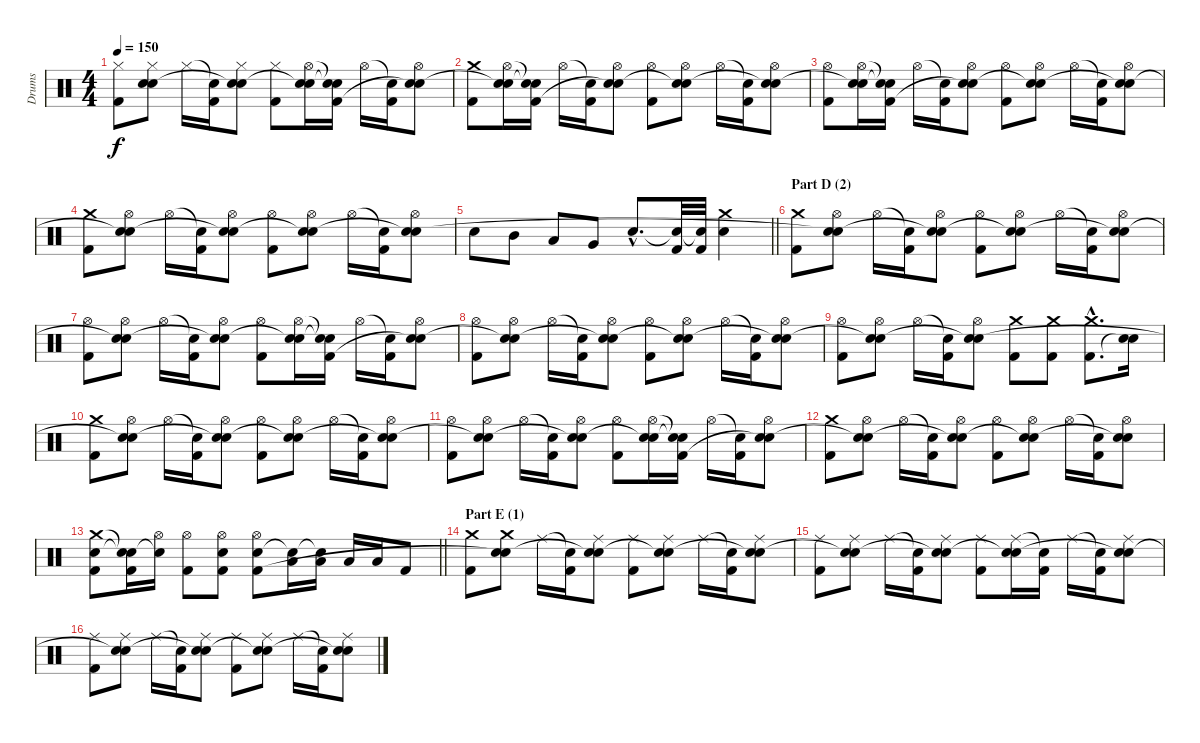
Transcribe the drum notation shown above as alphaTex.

\track ("Drums" "Drums") {instrument percussion}
\staff {score}
\articulation defaults
\ts (4 4)
\tempo 150
\clef neutral
\ks c
("Hi-Hat (closed)" "Kick (hit) 2").8{dy f} ("Hi-Hat (closed)" "Electric Snare (hit)" "Snare (hit)"{t}).8 "Hi-Hat (closed)".16 ("Snare (hit)"{t} "Kick (hit) 2").16 ("Hi-Hat (closed)" "Electric Snare (hit)" "Snare (hit)"{t}).8 ("Hi-Hat (closed)" "Kick (hit) 2").8 ("Hi-Hat (open)" "Electric Snare (hit)" "Snare (hit)"{t}).16 ("Snare (hit)"{t} "Snare (hit)"{t} "Kick (hit) 2").16 "Hi-Hat (open)".16 ("Snare (hit)"{t} "Kick (hit) 2").16 ("Hi-Hat (open)" "Electric Snare (hit)" "Snare (hit)"{t}).8 |
("Crash medium (hit)" "Kick (hit) 2").8 ("Hi-Hat (open)" "Electric Snare (hit)" "Snare (hit)"{t}).16 ("Snare (hit)"{t} "Snare (hit)"{t} "Kick (hit) 2").16 "Hi-Hat (open)".16 ("Snare (hit)"{t} "Kick (hit) 2").16 ("Hi-Hat (open)" "Electric Snare (hit)" "Snare (hit)"{t}).8 ("Hi-Hat (open)" "Kick (hit) 2").8 ("Hi-Hat (open)" "Electric Snare (hit)" "Snare (hit)"{t}).8 "Hi-Hat (open)".16 ("Snare (hit)"{t} "Kick (hit) 2").16 ("Hi-Hat (open)" "Electric Snare (hit)" "Snare (hit)"{t}).8 |
("Hi-Hat (open)" "Kick (hit) 2").8 ("Hi-Hat (open)" "Electric Snare (hit)" "Snare (hit)"{t}).16 ("Snare (hit)"{t} "Snare (hit)"{t} "Kick (hit) 2").16 "Hi-Hat (open)".16 ("Snare (hit)"{t} "Kick (hit) 2").16 ("Hi-Hat (open)" "Electric Snare (hit)" "Snare (hit)"{t}).8 ("Hi-Hat (open)" "Kick (hit) 2").8 ("Hi-Hat (open)" "Electric Snare (hit)" "Snare (hit)"{t}).8 "Hi-Hat (open)".16 ("Snare (hit)"{t} "Kick (hit) 2").16 ("Hi-Hat (open)" "Electric Snare (hit)" "Snare (hit)"{t}).8 |
("Crash medium (hit)" "Kick (hit) 2").8 ("Hi-Hat (open)" "Electric Snare (hit)" "Snare (hit)"{t}).8 "Hi-Hat (open)".16 ("Snare (hit)"{t} "Kick (hit) 2").16 ("Hi-Hat (open)" "Electric Snare (hit)" "Snare (hit)"{t}).8 ("Hi-Hat (open)" "Kick (hit) 2").8 ("Hi-Hat (open)" "Electric Snare (hit)" "Snare (hit)"{t}).8 "Hi-Hat (open)".16 ("Snare (hit)"{t} "Kick (hit) 2").16 ("Hi-Hat (open)" "Electric Snare (hit)" "Snare (hit)"{t}).8 |
\barLineRight lightlight "Electric Snare (hit)".8 "Mid Tom (hit)".8 "Low Tom (hit)".8 "Very Low Tom (hit)".8 "Electric Snare (hit)"{hac}.8{d}
("Snare (hit)"{t} "Kick (hit) 2").32 ("Snare (hit)"{t} "Kick (hit) 2").32 ("Crash medium (hit)" "Electric Snare (hit)").4 |
\section ("" "Part D (2)")
("Crash medium (hit)" "Kick (hit) 2").8 ("Hi-Hat (open)" "Electric Snare (hit)" "Snare (hit)"{t}).8 "Hi-Hat (open)".16 ("Snare (hit)"{t} "Kick (hit) 2").16 ("Hi-Hat (open)" "Electric Snare (hit)" "Snare (hit)"{t}).8 ("Hi-Hat (open)" "Kick (hit) 2").8 ("Hi-Hat (open)" "Electric Snare (hit)" "Snare (hit)"{t}).8 "Hi-Hat (open)".16 ("Snare (hit)"{t} "Kick (hit) 2").16 ("Hi-Hat (open)" "Electric Snare (hit)" "Snare (hit)"{t}).8 |
("Hi-Hat (open)" "Kick (hit) 2").8 ("Hi-Hat (open)" "Electric Snare (hit)" "Snare (hit)"{t}).8 "Hi-Hat (open)".16 ("Snare (hit)"{t} "Kick (hit) 2").16 ("Hi-Hat (open)" "Electric Snare (hit)" "Snare (hit)"{t}).8 ("Hi-Hat (open)" "Kick (hit) 2").8 ("Hi-Hat (open)" "Electric Snare (hit)" "Snare (hit)"{t}).16 ("Snare (hit)"{t} "Snare (hit)"{t} "Kick (hit) 2").16 "Hi-Hat (open)".16 ("Snare (hit)"{t} "Kick (hit) 2").16 ("Hi-Hat (open)" "Electric Snare (hit)" "Snare (hit)"{t}).8 |
("Hi-Hat (open)" "Kick (hit) 2").8 ("Hi-Hat (open)" "Electric Snare (hit)" "Snare (hit)"{t}).8 "Hi-Hat (open)".16 ("Snare (hit)"{t} "Kick (hit) 2").16 ("Hi-Hat (open)" "Electric Snare (hit)" "Snare (hit)"{t}).8 ("Hi-Hat (open)" "Kick (hit) 2").8 ("Hi-Hat (open)" "Electric Snare (hit)" "Snare (hit)"{t}).8 "Hi-Hat (open)".16 ("Snare (hit)"{t} "Kick (hit) 2").16 ("Hi-Hat (open)" "Electric Snare (hit)" "Snare (hit)"{t}).8 |
("Hi-Hat (open)" "Kick (hit) 2").8 ("Hi-Hat (open)" "Electric Snare (hit)" "Snare (hit)"{t}).8 "Hi-Hat (open)".16 ("Snare (hit)"{t} "Kick (hit) 2").16 ("Hi-Hat (open)" "Electric Snare (hit)" "Snare (hit)"{t}).8 ("Crash medium (hit)" "Kick (hit) 2").8 ("Crash medium (hit)" "Kick (hit) 2").8 ("Crash medium (hit)"{hac} "Kick (hit) 2"{hac}).8{d} ("Electric Snare (hit)" "Snare (hit)"{t}).16 |
("Crash medium (hit)" "Kick (hit) 2").8 ("Hi-Hat (open)" "Electric Snare (hit)" "Snare (hit)"{t}).8 "Hi-Hat (open)".16 ("Snare (hit)"{t} "Kick (hit) 2").16 ("Hi-Hat (open)" "Electric Snare (hit)" "Snare (hit)"{t}).8 ("Hi-Hat (open)" "Kick (hit) 2").8 ("Hi-Hat (open)" "Electric Snare (hit)" "Snare (hit)"{t}).8 "Hi-Hat (open)".16 ("Snare (hit)"{t} "Kick (hit) 2").16 ("Hi-Hat (open)" "Electric Snare (hit)" "Snare (hit)"{t}).8 |
("Hi-Hat (open)" "Kick (hit) 2").8 ("Hi-Hat (open)" "Electric Snare (hit)" "Snare (hit)"{t}).8 "Hi-Hat (open)".16 ("Snare (hit)"{t} "Kick (hit) 2").16 ("Hi-Hat (open)" "Electric Snare (hit)" "Snare (hit)"{t}).8 ("Hi-Hat (open)" "Kick (hit) 2").8 ("Hi-Hat (open)" "Electric Snare (hit)" "Snare (hit)"{t}).16 ("Snare (hit)"{t} "Snare (hit)"{t} "Kick (hit) 2").16 "Hi-Hat (open)".16 ("Snare (hit)"{t} "Kick (hit) 2").16 ("Hi-Hat (open)" "Electric Snare (hit)" "Snare (hit)"{t}).8 |
("Crash medium (hit)" "Kick (hit) 2").8 ("Hi-Hat (open)" "Electric Snare (hit)" "Snare (hit)"{t}).8 "Hi-Hat (open)".16 ("Snare (hit)"{t} "Kick (hit) 2").16 ("Hi-Hat (open)" "Electric Snare (hit)" "Snare (hit)"{t}).8 ("Hi-Hat (open)" "Kick (hit) 2").8 ("Hi-Hat (open)" "Electric Snare (hit)" "Snare (hit)"{t}).8 "Hi-Hat (open)".16 ("Snare (hit)"{t} "Kick (hit) 2").16 ("Hi-Hat (open)" "Electric Snare (hit)" "Snare (hit)"{t}).8 |
\barLineRight lightlight
("Crash medium (hit)" "Electric Snare (hit)" "Kick (hit) 2").8 ("Snare (hit)"{t} "Snare (hit)"{t} "Kick (hit) 2").16 ("Hi-Hat (open)" "Snare (hit)"{t}).16 ("Hi-Hat (open)" "Kick (hit) 2").8 ("Hi-Hat (open)" "Electric Snare (hit)" "Kick (hit) 2").8 ("Hi-Hat (open)" "Electric Snare (hit)" "Kick (hit) 2").8 ("Low Tom (hit)" "Snare (hit)"{t}).16 ("Low Tom (hit)" "Snare (hit)"{t}).16 "Low Tom (hit)".16 "Low Tom (hit)".16 "Kick (hit) 2".8 |
\section ("" "Part E (1)")
("Crash medium (hit)" "Kick (hit) 2").8 ("Crash medium (hit)" "Electric Snare (hit)" "Snare (hit)"{t}).8 "Ride (middle)".16 ("Snare (hit)"{t} "Kick (hit) 2").16 ("Ride (middle)" "Electric Snare (hit)" "Snare (hit)"{t}).8 ("Ride (middle)" "Kick (hit) 2").8 ("Ride (middle)" "Electric Snare (hit)" "Snare (hit)"{t}).8 "Ride (middle)".16 ("Snare (hit)"{t} "Kick (hit) 2").16 ("Ride (middle)" "Electric Snare (hit)" "Snare (hit)"{t}).8 |
("Ride (middle)" "Kick (hit) 2").8 ("Ride (middle)" "Electric Snare (hit)" "Snare (hit)"{t}).8 "Ride (middle)".16 ("Snare (hit)"{t} "Kick (hit) 2").16 ("Ride (middle)" "Electric Snare (hit)" "Snare (hit)"{t}).8 ("Ride (middle)" "Kick (hit) 2").8 ("Ride (middle)" "Electric Snare (hit)" "Snare (hit)"{t}).16 ("Snare (hit)"{t} "Kick (hit) 2").16 "Ride (middle)".16 ("Snare (hit)"{t} "Kick (hit) 2").16 ("Ride (middle)" "Electric Snare (hit)" "Snare (hit)"{t}).8 |
("Ride (middle)" "Kick (hit) 2").8 ("Ride (middle)" "Electric Snare (hit)" "Snare (hit)"{t}).8 "Ride (middle)".16 ("Snare (hit)"{t} "Kick (hit) 2").16 ("Ride (middle)" "Electric Snare (hit)" "Snare (hit)"{t}).8 ("Ride (middle)" "Kick (hit) 2").8 ("Ride (middle)" "Electric Snare (hit)" "Snare (hit)"{t}).8 "Ride (middle)".16 ("Snare (hit)"{t} "Kick (hit) 2").16 ("Ride (middle)" "Electric Snare (hit)" "Snare (hit)"{t}).8
